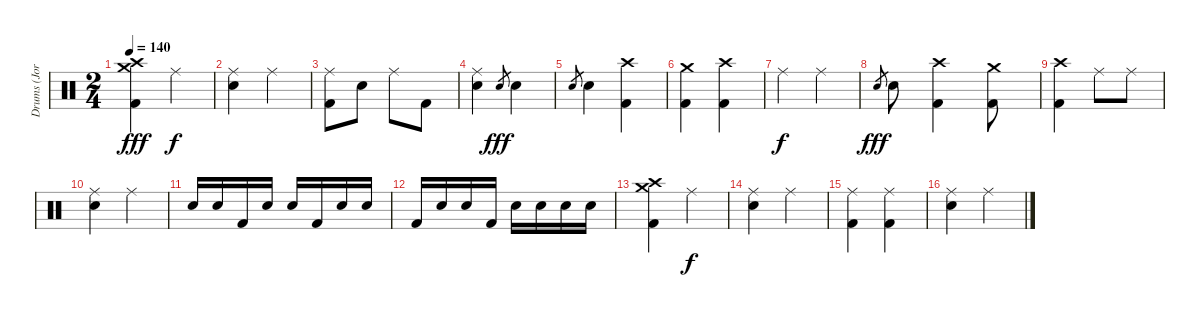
\track ("Drums (Jordan Hastings)" "Drums (Jor") {instrument percussion}
\staff {score}
\articulation defaults
\ts (2 4)
\tempo 140
\clef neutral
\ks c
("Crash medium (hit)" "Crash high (hit)" "Kick (hit) 2").4{dy fff} "Ride (middle)".4{dy f} |
("Ride (middle)" "Electric Snare (hit)").4 "Ride (middle)".4 |
("Ride (middle)" "Kick (hit) 2").8 "Electric Snare (hit)".8 "Ride (middle)".8 "Kick (hit) 2".8 |
("Ride (middle)" "Electric Snare (hit)").4 "Electric Snare (hit)".8{gr dy fff} "Electric Snare (hit)".4 |
"Electric Snare (hit)".8{gr} "Electric Snare (hit)".4 ("Crash high (hit)" "Kick (hit) 2").4 |
("Crash medium (hit)" "Kick (hit) 2").4 ("Crash high (hit)" "Kick (hit) 2").4 |
"Ride (middle)".4{dy f} "Ride (middle)".4 |
"Electric Snare (hit)".8{gr dy fff} "Electric Snare (hit)".8 ("Crash high (hit)" "Kick (hit) 2").4 ("Crash medium (hit)" "Kick (hit) 2").8 |
("Crash high (hit)" "Kick (hit) 2").4 "Ride (middle)".8 "Ride (middle)".8 |
("Ride (middle)" "Electric Snare (hit)").4 "Ride (middle)".4 |
"Electric Snare (hit)".16 "Electric Snare (hit)".16 "Kick (hit) 2".16 "Electric Snare (hit)".16 "Electric Snare (hit)".16 "Kick (hit) 2".16 "Electric Snare (hit)".16 "Electric Snare (hit)".16 |
"Kick (hit) 2".16 "Electric Snare (hit)".16 "Electric Snare (hit)".16 "Kick (hit) 2".16 "Electric Snare (hit)".16 "Electric Snare (hit)".16 "Electric Snare (hit)".16 "Electric Snare (hit)".16 |
("Crash medium (hit)" "Crash high (hit)" "Kick (hit) 2").4 "Ride (middle)".4{dy f} |
("Ride (middle)" "Electric Snare (hit)").4 "Ride (middle)".4 |
("Ride (middle)" "Kick (hit) 2").4 ("Ride (middle)" "Kick (hit) 2").4 |
("Ride (middle)" "Electric Snare (hit)").4 "Ride (middle)".4
